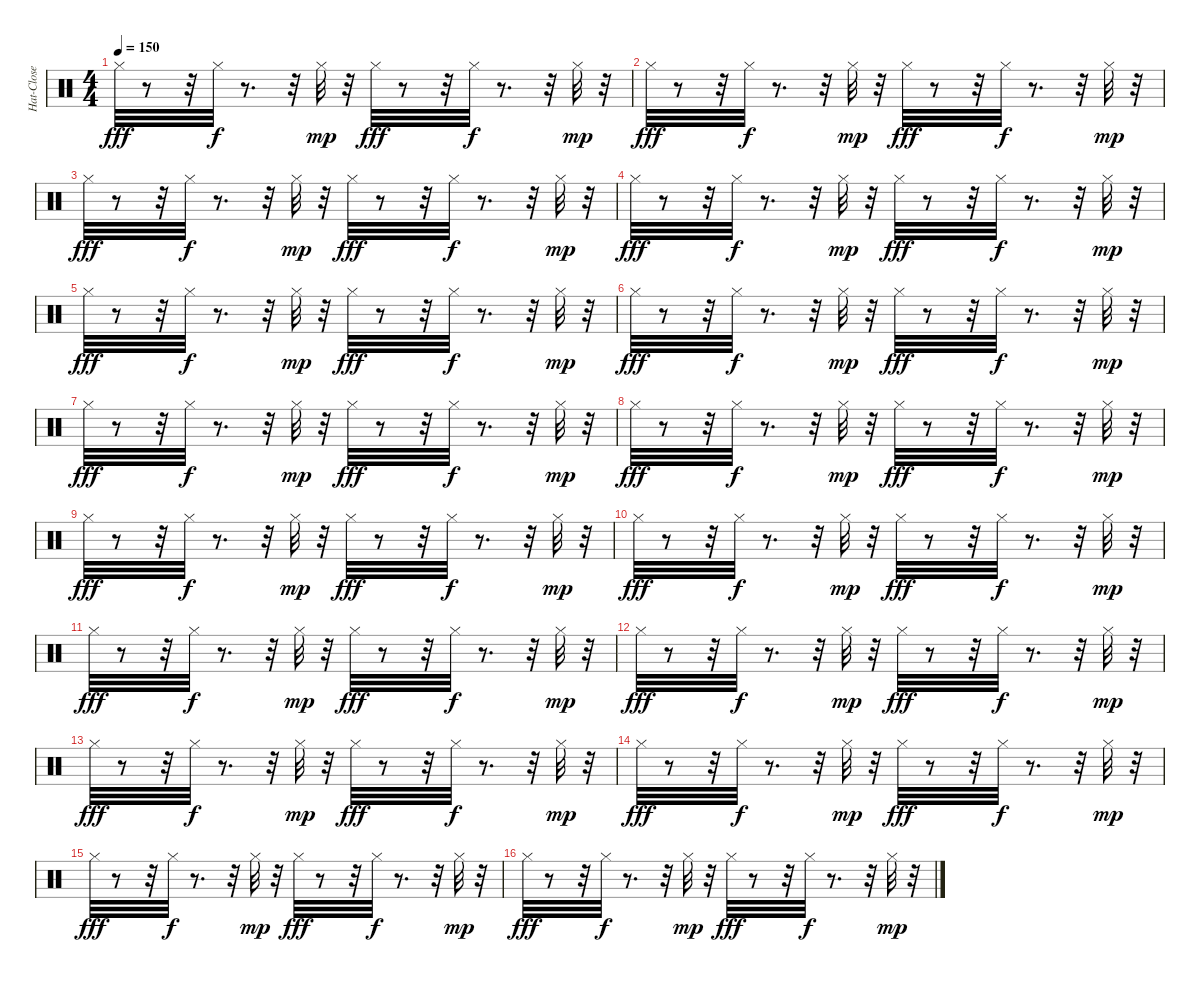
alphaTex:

\track ("Hat-Close" "Hat-Close") {instrument percussion}
\staff {score}
\articulation defaults
\ts (4 4)
\tempo 150
\clef neutral
\ks c "Hi-Hat (closed)".32{dy fff}
r.8 r.32 "Hi-Hat (closed)".32{dy f} r.8{d} r.32 "Hi-Hat (closed)".32{dy mp} r.32 "Hi-Hat (closed)".32{dy fff} r.8 r.32 "Hi-Hat (closed)".32{dy f} r.8{d} r.32 "Hi-Hat (closed)".32{dy mp} r.32 |
"Hi-Hat (closed)".32{dy fff} r.8 r.32 "Hi-Hat (closed)".32{dy f} r.8{d} r.32 "Hi-Hat (closed)".32{dy mp} r.32 "Hi-Hat (closed)".32{dy fff} r.8 r.32 "Hi-Hat (closed)".32{dy f} r.8{d} r.32 "Hi-Hat (closed)".32{dy mp} r.32 |
"Hi-Hat (closed)".32{dy fff} r.8 r.32 "Hi-Hat (closed)".32{dy f} r.8{d} r.32 "Hi-Hat (closed)".32{dy mp} r.32 "Hi-Hat (closed)".32{dy fff} r.8 r.32 "Hi-Hat (closed)".32{dy f} r.8{d} r.32 "Hi-Hat (closed)".32{dy mp} r.32 |
"Hi-Hat (closed)".32{dy fff} r.8 r.32 "Hi-Hat (closed)".32{dy f} r.8{d} r.32 "Hi-Hat (closed)".32{dy mp} r.32 "Hi-Hat (closed)".32{dy fff} r.8 r.32 "Hi-Hat (closed)".32{dy f} r.8{d} r.32 "Hi-Hat (closed)".32{dy mp} r.32 |
"Hi-Hat (closed)".32{dy fff} r.8 r.32 "Hi-Hat (closed)".32{dy f} r.8{d} r.32 "Hi-Hat (closed)".32{dy mp} r.32 "Hi-Hat (closed)".32{dy fff} r.8 r.32 "Hi-Hat (closed)".32{dy f} r.8{d} r.32 "Hi-Hat (closed)".32{dy mp} r.32 |
"Hi-Hat (closed)".32{dy fff} r.8 r.32 "Hi-Hat (closed)".32{dy f} r.8{d} r.32 "Hi-Hat (closed)".32{dy mp} r.32 "Hi-Hat (closed)".32{dy fff} r.8 r.32 "Hi-Hat (closed)".32{dy f} r.8{d} r.32 "Hi-Hat (closed)".32{dy mp} r.32 |
"Hi-Hat (closed)".32{dy fff} r.8 r.32 "Hi-Hat (closed)".32{dy f} r.8{d} r.32 "Hi-Hat (closed)".32{dy mp} r.32 "Hi-Hat (closed)".32{dy fff} r.8 r.32 "Hi-Hat (closed)".32{dy f} r.8{d} r.32 "Hi-Hat (closed)".32{dy mp} r.32 |
"Hi-Hat (closed)".32{dy fff} r.8 r.32 "Hi-Hat (closed)".32{dy f} r.8{d} r.32 "Hi-Hat (closed)".32{dy mp} r.32 "Hi-Hat (closed)".32{dy fff} r.8 r.32 "Hi-Hat (closed)".32{dy f} r.8{d} r.32 "Hi-Hat (closed)".32{dy mp} r.32 |
"Hi-Hat (closed)".32{dy fff} r.8 r.32 "Hi-Hat (closed)".32{dy f} r.8{d} r.32 "Hi-Hat (closed)".32{dy mp} r.32 "Hi-Hat (closed)".32{dy fff} r.8 r.32 "Hi-Hat (closed)".32{dy f} r.8{d} r.32 "Hi-Hat (closed)".32{dy mp} r.32 |
"Hi-Hat (closed)".32{dy fff} r.8 r.32 "Hi-Hat (closed)".32{dy f} r.8{d} r.32 "Hi-Hat (closed)".32{dy mp} r.32 "Hi-Hat (closed)".32{dy fff} r.8 r.32 "Hi-Hat (closed)".32{dy f} r.8{d} r.32 "Hi-Hat (closed)".32{dy mp} r.32 |
"Hi-Hat (closed)".32{dy fff} r.8 r.32 "Hi-Hat (closed)".32{dy f} r.8{d} r.32 "Hi-Hat (closed)".32{dy mp} r.32 "Hi-Hat (closed)".32{dy fff} r.8 r.32 "Hi-Hat (closed)".32{dy f} r.8{d} r.32 "Hi-Hat (closed)".32{dy mp} r.32 |
"Hi-Hat (closed)".32{dy fff} r.8 r.32 "Hi-Hat (closed)".32{dy f} r.8{d} r.32 "Hi-Hat (closed)".32{dy mp} r.32 "Hi-Hat (closed)".32{dy fff} r.8 r.32 "Hi-Hat (closed)".32{dy f} r.8{d} r.32 "Hi-Hat (closed)".32{dy mp} r.32 |
"Hi-Hat (closed)".32{dy fff} r.8 r.32 "Hi-Hat (closed)".32{dy f} r.8{d} r.32 "Hi-Hat (closed)".32{dy mp} r.32 "Hi-Hat (closed)".32{dy fff} r.8 r.32 "Hi-Hat (closed)".32{dy f} r.8{d} r.32 "Hi-Hat (closed)".32{dy mp} r.32 |
"Hi-Hat (closed)".32{dy fff} r.8 r.32 "Hi-Hat (closed)".32{dy f} r.8{d} r.32 "Hi-Hat (closed)".32{dy mp} r.32 "Hi-Hat (closed)".32{dy fff} r.8 r.32 "Hi-Hat (closed)".32{dy f} r.8{d} r.32 "Hi-Hat (closed)".32{dy mp} r.32 |
"Hi-Hat (closed)".32{dy fff} r.8 r.32 "Hi-Hat (closed)".32{dy f} r.8{d} r.32 "Hi-Hat (closed)".32{dy mp} r.32 "Hi-Hat (closed)".32{dy fff} r.8 r.32 "Hi-Hat (closed)".32{dy f} r.8{d} r.32 "Hi-Hat (closed)".32{dy mp} r.32 |
"Hi-Hat (closed)".32{dy fff} r.8 r.32 "Hi-Hat (closed)".32{dy f} r.8{d} r.32 "Hi-Hat (closed)".32{dy mp} r.32 "Hi-Hat (closed)".32{dy fff} r.8 r.32 "Hi-Hat (closed)".32{dy f} r.8{d} r.32 "Hi-Hat (closed)".32{dy mp} r.32
